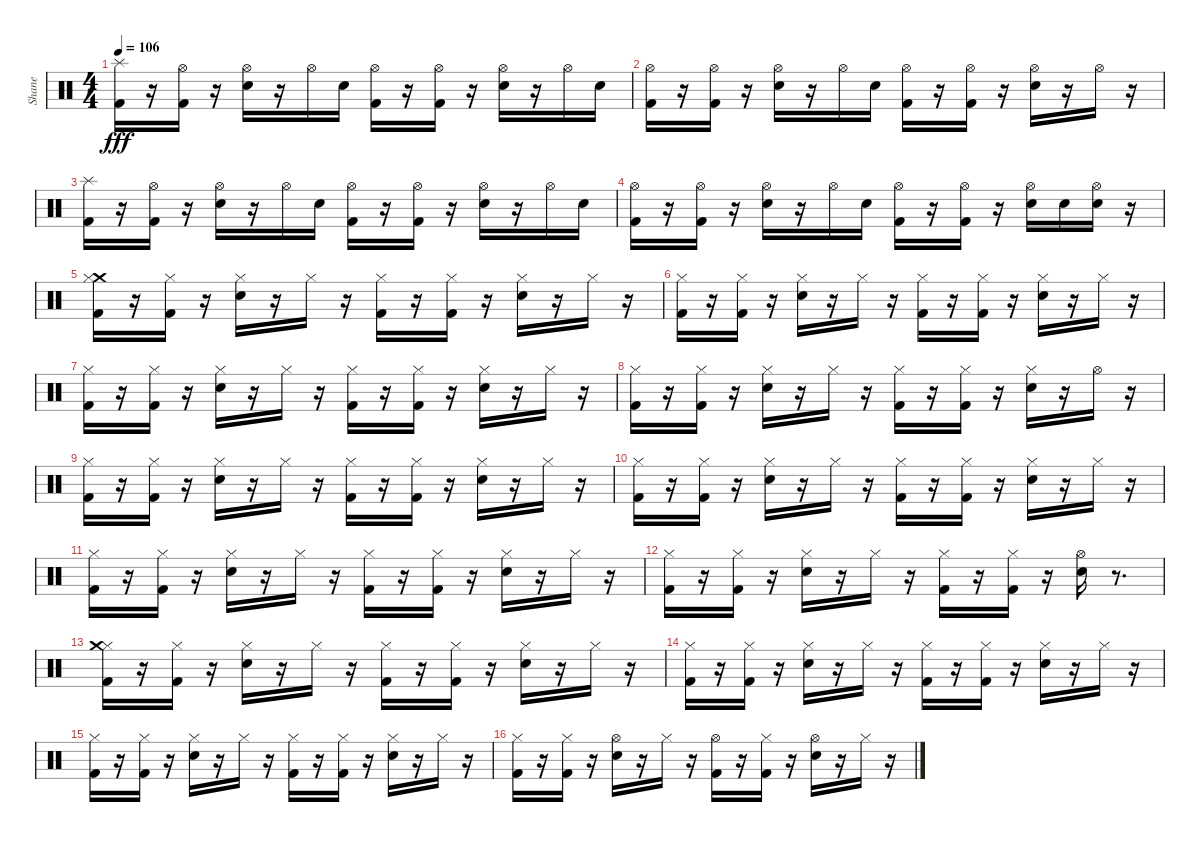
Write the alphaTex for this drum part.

\track ("Shane" "Shane") {instrument percussion}
\staff {score}
\articulation defaults
\ts (4 4)
\tempo 106
\clef neutral
\ks c
("Kick (hit) 2" "Splash (hit)").16{dy fff} r.16 ("Kick (hit) 2" "Hi-Hat (open)").16 r.16 ("Snare (hit) 2" "Hi-Hat (open)").16 r.16 "Hi-Hat (open)".16 "Snare (hit) 2".16 ("Kick (hit) 2" "Hi-Hat (open)").16 r.16 ("Kick (hit) 2" "Hi-Hat (open)").16 r.16 ("Snare (hit) 2" "Hi-Hat (open)").16 r.16 "Hi-Hat (open)".16 "Snare (hit) 2".16 |
("Kick (hit) 2" "Hi-Hat (open)").16 r.16 ("Kick (hit) 2" "Hi-Hat (open)").16 r.16 ("Snare (hit) 2" "Hi-Hat (open)").16 r.16 "Hi-Hat (open)".16 "Snare (hit) 2".16 ("Kick (hit) 2" "Hi-Hat (open)").16 r.16 ("Kick (hit) 2" "Hi-Hat (open)").16 r.16 ("Snare (hit) 2" "Hi-Hat (open)").16 r.16 "Hi-Hat (open)".16 r.16 |
("Kick (hit) 2" "Splash (hit)").16 r.16 ("Kick (hit) 2" "Hi-Hat (open)").16 r.16 ("Snare (hit) 2" "Hi-Hat (open)").16 r.16 "Hi-Hat (open)".16 "Snare (hit) 2".16 ("Kick (hit) 2" "Hi-Hat (open)").16 r.16 ("Kick (hit) 2" "Hi-Hat (open)").16 r.16 ("Snare (hit) 2" "Hi-Hat (open)").16 r.16 "Hi-Hat (open)".16 "Snare (hit) 2".16 |
("Kick (hit) 2" "Hi-Hat (open)").16 r.16 ("Kick (hit) 2" "Hi-Hat (open)").16 r.16 ("Snare (hit) 2" "Hi-Hat (open)").16 r.16 "Hi-Hat (open)".16 "Snare (hit) 2".16 ("Kick (hit) 2" "Hi-Hat (open)").16 r.16 ("Kick (hit) 2" "Hi-Hat (open)").16 r.16 ("Snare (hit) 2" "Hi-Hat (open)").16 "Snare (hit) 2".16 ("Hi-Hat (open)" "Snare (hit) 2").16 r.16 |
("Crash medium (hit)" "Hi-Hat (closed)" "Kick (hit) 2").16 r.16 ("Hi-Hat (closed)" "Kick (hit) 2").16 r.16 ("Hi-Hat (closed)" "Snare (hit) 2").16 r.16 "Hi-Hat (closed)".16 r.16 ("Hi-Hat (closed)" "Kick (hit) 2").16 r.16 ("Hi-Hat (closed)" "Kick (hit) 2").16 r.16 ("Hi-Hat (closed)" "Snare (hit) 2").16 r.16 "Hi-Hat (closed)".16 r.16 |
("Hi-Hat (closed)" "Kick (hit) 2").16 r.16 ("Hi-Hat (closed)" "Kick (hit) 2").16 r.16 ("Hi-Hat (closed)" "Snare (hit) 2").16 r.16 "Hi-Hat (closed)".16 r.16 ("Hi-Hat (closed)" "Kick (hit) 2").16 r.16 ("Hi-Hat (closed)" "Kick (hit) 2").16 r.16 ("Hi-Hat (closed)" "Snare (hit) 2").16 r.16 "Hi-Hat (closed)".16 r.16 |
("Hi-Hat (closed)" "Kick (hit) 2").16 r.16 ("Hi-Hat (closed)" "Kick (hit) 2").16 r.16 ("Hi-Hat (closed)" "Snare (hit) 2").16 r.16 "Hi-Hat (closed)".16 r.16 ("Hi-Hat (closed)" "Kick (hit) 2").16 r.16 ("Hi-Hat (closed)" "Kick (hit) 2").16 r.16 ("Hi-Hat (closed)" "Snare (hit) 2").16 r.16 "Hi-Hat (closed)".16 r.16 |
("Hi-Hat (closed)" "Kick (hit) 2").16 r.16 ("Hi-Hat (closed)" "Kick (hit) 2").16 r.16 ("Hi-Hat (closed)" "Snare (hit) 2").16 r.16 "Hi-Hat (closed)".16 r.16 ("Hi-Hat (closed)" "Kick (hit) 2").16 r.16 ("Hi-Hat (closed)" "Kick (hit) 2").16 r.16 ("Hi-Hat (closed)" "Snare (hit) 2").16 r.16 "Hi-Hat (open)".16 r.16 |
("Hi-Hat (closed)" "Kick (hit) 2").16 r.16 ("Hi-Hat (closed)" "Kick (hit) 2").16 r.16 ("Hi-Hat (closed)" "Snare (hit) 2").16 r.16 "Hi-Hat (closed)".16 r.16 ("Hi-Hat (closed)" "Kick (hit) 2").16 r.16 ("Hi-Hat (closed)" "Kick (hit) 2").16 r.16 ("Hi-Hat (closed)" "Snare (hit) 2").16 r.16 "Hi-Hat (closed)".16 r.16 |
("Hi-Hat (closed)" "Kick (hit) 2").16 r.16 ("Hi-Hat (closed)" "Kick (hit) 2").16 r.16 ("Hi-Hat (closed)" "Snare (hit) 2").16 r.16 "Hi-Hat (closed)".16 r.16 ("Hi-Hat (closed)" "Kick (hit) 2").16 r.16 ("Hi-Hat (closed)" "Kick (hit) 2").16 r.16 ("Hi-Hat (closed)" "Snare (hit) 2").16 r.16 "Hi-Hat (closed)".16 r.16 |
("Hi-Hat (closed)" "Kick (hit) 2").16 r.16 ("Hi-Hat (closed)" "Kick (hit) 2").16 r.16 ("Hi-Hat (closed)" "Snare (hit) 2").16 r.16 "Hi-Hat (closed)".16 r.16 ("Hi-Hat (closed)" "Kick (hit) 2").16 r.16 ("Hi-Hat (closed)" "Kick (hit) 2").16 r.16 ("Hi-Hat (closed)" "Snare (hit) 2").16 r.16 "Hi-Hat (closed)".16 r.16 |
("Hi-Hat (closed)" "Kick (hit) 2").16 r.16 ("Hi-Hat (closed)" "Kick (hit) 2").16 r.16 ("Hi-Hat (closed)" "Snare (hit) 2").16 r.16 "Hi-Hat (closed)".16 r.16 ("Hi-Hat (closed)" "Kick (hit) 2").16 r.16 ("Hi-Hat (closed)" "Kick (hit) 2").16 r.16 ("Snare (hit) 2" "Hi-Hat (open)").16 r.8{d} |
("Hi-Hat (closed)" "Kick (hit) 2" "Crash medium (hit)").16 r.16 ("Hi-Hat (closed)" "Kick (hit) 2").16 r.16 ("Hi-Hat (closed)" "Snare (hit) 2").16 r.16 "Hi-Hat (closed)".16 r.16 ("Hi-Hat (closed)" "Kick (hit) 2").16 r.16 ("Hi-Hat (closed)" "Kick (hit) 2").16 r.16 ("Hi-Hat (closed)" "Snare (hit) 2").16 r.16 "Hi-Hat (closed)".16 r.16 |
("Hi-Hat (closed)" "Kick (hit) 2").16 r.16 ("Hi-Hat (closed)" "Kick (hit) 2").16 r.16 ("Hi-Hat (closed)" "Snare (hit) 2").16 r.16 "Hi-Hat (closed)".16 r.16 ("Hi-Hat (closed)" "Kick (hit) 2").16 r.16 ("Hi-Hat (closed)" "Kick (hit) 2").16 r.16 ("Hi-Hat (closed)" "Snare (hit) 2").16 r.16 "Hi-Hat (closed)".16 r.16 |
("Hi-Hat (closed)" "Kick (hit) 2").16 r.16 ("Hi-Hat (closed)" "Kick (hit) 2").16 r.16 ("Hi-Hat (closed)" "Snare (hit) 2").16 r.16 "Hi-Hat (closed)".16 r.16 ("Hi-Hat (closed)" "Kick (hit) 2").16 r.16 ("Hi-Hat (closed)" "Kick (hit) 2").16 r.16 ("Hi-Hat (closed)" "Snare (hit) 2").16 r.16 "Hi-Hat (closed)".16 r.16 |
("Hi-Hat (closed)" "Kick (hit) 2").16 r.16 ("Hi-Hat (closed)" "Kick (hit) 2").16 r.16 ("Snare (hit) 2" "Hi-Hat (open)").16 r.16 "Hi-Hat (closed)".16 r.16 ("Kick (hit) 2" "Hi-Hat (open)").16 r.16 ("Kick (hit) 2" "Hi-Hat (closed)").16 r.16 ("Snare (hit) 2" "Hi-Hat (open)").16 r.16 "Hi-Hat (closed)".16 r.16
